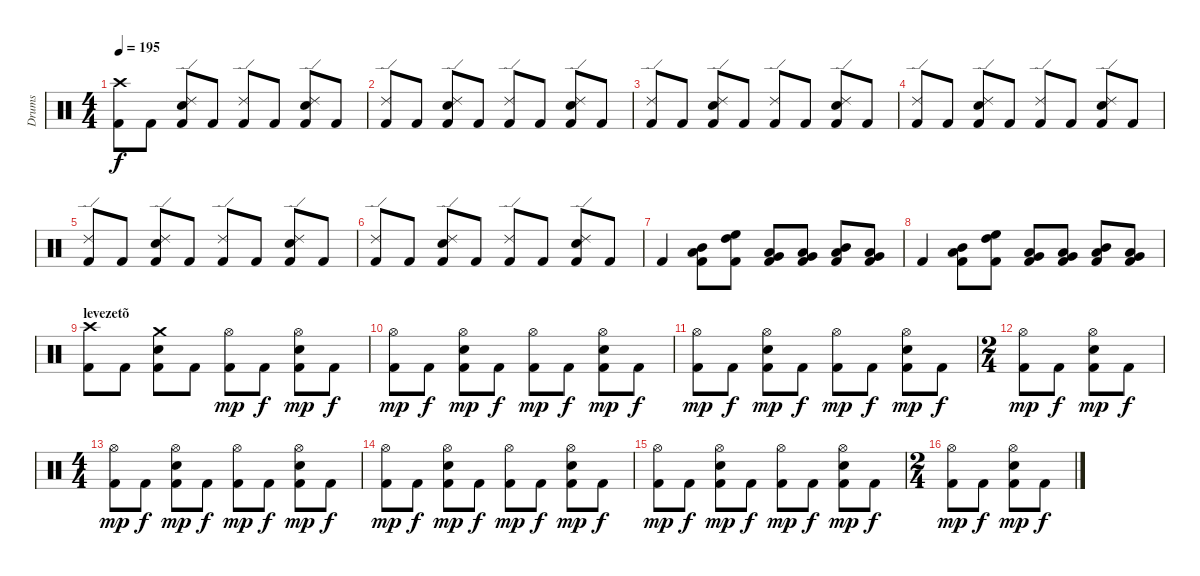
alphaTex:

\track ("Drums" "Drums") {instrument percussion}
\staff {score}
\articulation defaults
\ts (4 4)
\tempo 195
\clef neutral
\ks c
("Crash high (hit)" "Kick (hit) 2").8{dy f} "Kick (hit) 2".8 ("Ride (edge) 2" "Snare (hit) 2" "Kick (hit) 2").8 "Kick (hit) 2".8 ("Ride (edge) 2" "Kick (hit) 2").8 "Kick (hit) 2".8 ("Ride (edge) 2" "Snare (hit) 2" "Kick (hit) 2").8 "Kick (hit) 2".8 |
("Ride (edge) 2" "Kick (hit) 2").8 "Kick (hit) 2".8 ("Ride (edge) 2" "Snare (hit) 2" "Kick (hit) 2").8 "Kick (hit) 2".8 ("Ride (edge) 2" "Kick (hit) 2").8 "Kick (hit) 2".8 ("Ride (edge) 2" "Snare (hit) 2" "Kick (hit) 2").8 "Kick (hit) 2".8 |
("Ride (edge) 2" "Kick (hit) 2").8 "Kick (hit) 2".8 ("Ride (edge) 2" "Snare (hit) 2" "Kick (hit) 2").8 "Kick (hit) 2".8 ("Ride (edge) 2" "Kick (hit) 2").8 "Kick (hit) 2".8 ("Ride (edge) 2" "Snare (hit) 2" "Kick (hit) 2").8 "Kick (hit) 2".8 |
("Ride (edge) 2" "Kick (hit) 2").8 "Kick (hit) 2".8 ("Ride (edge) 2" "Snare (hit) 2" "Kick (hit) 2").8 "Kick (hit) 2".8 ("Ride (edge) 2" "Kick (hit) 2").8 "Kick (hit) 2".8 ("Ride (edge) 2" "Snare (hit) 2" "Kick (hit) 2").8 "Kick (hit) 2".8 |
("Ride (edge) 2" "Kick (hit) 2").8 "Kick (hit) 2".8 ("Ride (edge) 2" "Snare (hit) 2" "Kick (hit) 2").8 "Kick (hit) 2".8 ("Ride (edge) 2" "Kick (hit) 2").8 "Kick (hit) 2".8 ("Ride (edge) 2" "Snare (hit) 2" "Kick (hit) 2").8 "Kick (hit) 2".8 |
("Ride (edge) 2" "Kick (hit) 2").8 "Kick (hit) 2".8 ("Ride (edge) 2" "Snare (hit) 2" "Kick (hit) 2").8 "Kick (hit) 2".8 ("Ride (edge) 2" "Kick (hit) 2").8 "Kick (hit) 2".8 ("Ride (edge) 2" "Snare (hit) 2" "Kick (hit) 2").8 "Kick (hit) 2".8 |
"Kick (hit) 2".4 ("Mid Tom (hit)" "Low Tom (hit)" "Kick (hit) 2").8 ("High Tom (hit)" "High Floor Tom (hit)" "Kick (hit) 2").8 ("Low Tom (hit)" "Very Low Tom (hit)" "Kick (hit) 2").8 ("Low Tom (hit)" "Very Low Tom (hit)" "Kick (hit) 2").8 ("Mid Tom (hit)" "Low Tom (hit)" "Kick (hit) 2").8 ("Low Tom (hit)" "Very Low Tom (hit)" "Kick (hit) 2").8 |
"Kick (hit) 2".4 ("Mid Tom (hit)" "Low Tom (hit)" "Kick (hit) 2").8 ("High Tom (hit)" "High Floor Tom (hit)" "Kick (hit) 2").8 ("Low Tom (hit)" "Very Low Tom (hit)" "Kick (hit) 2").8 ("Low Tom (hit)" "Very Low Tom (hit)" "Kick (hit) 2").8 ("Mid Tom (hit)" "Low Tom (hit)" "Kick (hit) 2").8 ("Low Tom (hit)" "Very Low Tom (hit)" "Kick (hit) 2").8 |
\section ("" "levezetõ")
("Crash high (hit)" "Kick (hit) 2").8 "Kick (hit) 2".8 ("Crash medium (hit)" "Snare (hit) 2" "Kick (hit) 2").8 "Kick (hit) 2".8 ("Hi-Hat (open)" "Kick (hit) 2").8{dy mp} "Kick (hit) 2".8{dy f} ("Hi-Hat (open)" "Snare (hit) 2" "Kick (hit) 2").8{dy mp} "Kick (hit) 2".8{dy f} |
("Hi-Hat (open)" "Kick (hit) 2").8{dy mp} "Kick (hit) 2".8{dy f} ("Hi-Hat (open)" "Snare (hit) 2" "Kick (hit) 2").8{dy mp} "Kick (hit) 2".8{dy f} ("Hi-Hat (open)" "Kick (hit) 2").8{dy mp} "Kick (hit) 2".8{dy f} ("Hi-Hat (open)" "Snare (hit) 2" "Kick (hit) 2").8{dy mp} "Kick (hit) 2".8{dy f} |
("Hi-Hat (open)" "Kick (hit) 2").8{dy mp} "Kick (hit) 2".8{dy f} ("Hi-Hat (open)" "Snare (hit) 2" "Kick (hit) 2").8{dy mp} "Kick (hit) 2".8{dy f} ("Hi-Hat (open)" "Kick (hit) 2").8{dy mp} "Kick (hit) 2".8{dy f} ("Hi-Hat (open)" "Snare (hit) 2" "Kick (hit) 2").8{dy mp} "Kick (hit) 2".8{dy f} |
\ts (2 4)
("Hi-Hat (open)" "Kick (hit) 2").8{dy mp} "Kick (hit) 2".8{dy f} ("Hi-Hat (open)" "Snare (hit) 2" "Kick (hit) 2").8{dy mp} "Kick (hit) 2".8{dy f} |
\ts (4 4)
("Hi-Hat (open)" "Kick (hit) 2").8{dy mp} "Kick (hit) 2".8{dy f} ("Hi-Hat (open)" "Snare (hit) 2" "Kick (hit) 2").8{dy mp} "Kick (hit) 2".8{dy f} ("Hi-Hat (open)" "Kick (hit) 2").8{dy mp} "Kick (hit) 2".8{dy f} ("Hi-Hat (open)" "Snare (hit) 2" "Kick (hit) 2").8{dy mp} "Kick (hit) 2".8{dy f} |
("Hi-Hat (open)" "Kick (hit) 2").8{dy mp} "Kick (hit) 2".8{dy f} ("Hi-Hat (open)" "Snare (hit) 2" "Kick (hit) 2").8{dy mp} "Kick (hit) 2".8{dy f} ("Hi-Hat (open)" "Kick (hit) 2").8{dy mp} "Kick (hit) 2".8{dy f} ("Hi-Hat (open)" "Snare (hit) 2" "Kick (hit) 2").8{dy mp} "Kick (hit) 2".8{dy f} |
("Hi-Hat (open)" "Kick (hit) 2").8{dy mp} "Kick (hit) 2".8{dy f} ("Hi-Hat (open)" "Snare (hit) 2" "Kick (hit) 2").8{dy mp} "Kick (hit) 2".8{dy f} ("Hi-Hat (open)" "Kick (hit) 2").8{dy mp} "Kick (hit) 2".8{dy f} ("Hi-Hat (open)" "Snare (hit) 2" "Kick (hit) 2").8{dy mp} "Kick (hit) 2".8{dy f} |
\ts (2 4)
("Hi-Hat (open)" "Kick (hit) 2").8{dy mp} "Kick (hit) 2".8{dy f} ("Hi-Hat (open)" "Snare (hit) 2" "Kick (hit) 2").8{dy mp} "Kick (hit) 2".8{dy f}
